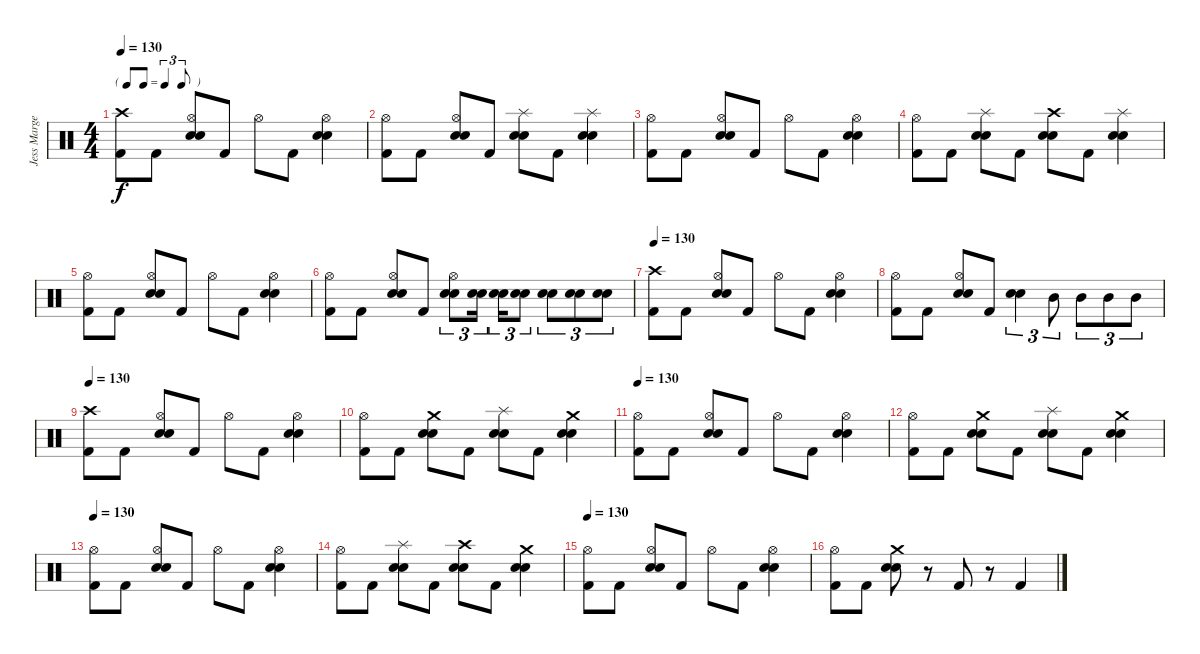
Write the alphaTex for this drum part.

\track ("Jess Margera" "Jess Marge") {instrument percussion}
\staff {score}
\articulation defaults
\ts (4 4)
\tf triplet8th
\tempo 130
\clef neutral
\ks c
("Crash high (hit)" "Kick (hit) 2").8{dy f} "Kick (hit) 2".8 ("Snare (hit) 2" "Hi-Hat (open)" "Electric Snare (hit)").8 "Kick (hit) 2".8 "Hi-Hat (open)".8 "Kick (hit) 2".8 ("Hi-Hat (open)" "Snare (hit) 2" "Electric Snare (hit)").4 |
("Hi-Hat (open)" "Kick (hit) 2").8 "Kick (hit) 2".8 ("Hi-Hat (open)" "Snare (hit) 2" "Electric Snare (hit)").8 "Kick (hit) 2".8 ("Splash (hit)" "Snare (hit) 2" "Electric Snare (hit)").8 "Kick (hit) 2".8 ("Splash (hit)" "Snare (hit) 2" "Electric Snare (hit)").4 |
("Hi-Hat (open)" "Kick (hit) 2").8 "Kick (hit) 2".8 ("Hi-Hat (open)" "Snare (hit) 2" "Electric Snare (hit)").8 "Kick (hit) 2".8 "Hi-Hat (open)".8 "Kick (hit) 2".8 ("Hi-Hat (open)" "Snare (hit) 2" "Electric Snare (hit)").4 |
("Hi-Hat (open)" "Kick (hit) 2").8 "Kick (hit) 2".8 ("Splash (hit)" "Snare (hit) 2" "Electric Snare (hit)").8 "Kick (hit) 2".8 ("Crash high (hit)" "Snare (hit) 2" "Electric Snare (hit)").8 "Kick (hit) 2".8 ("Splash (hit)" "Snare (hit) 2" "Electric Snare (hit)").4 |
("Hi-Hat (open)" "Kick (hit) 2").8 "Kick (hit) 2".8 ("Hi-Hat (open)" "Snare (hit) 2" "Electric Snare (hit)").8 "Kick (hit) 2".8 "Hi-Hat (open)".8 "Kick (hit) 2".8 ("Hi-Hat (open)" "Snare (hit) 2" "Electric Snare (hit)").4 |
("Hi-Hat (open)" "Kick (hit) 2").8 "Kick (hit) 2".8 ("Hi-Hat (open)" "Electric Snare (hit)" "Snare (hit) 2").8 "Kick (hit) 2".8 ("Hi-Hat (open)" "Electric Snare (hit)" "Snare (hit) 2").8{tu (3 2)} ("Electric Snare (hit)" "Snare (hit) 2").16{tu (3 2) beam splitsecondary} ("Electric Snare (hit)" "Snare (hit) 2").16{tu (3 2)} ("Electric Snare (hit)" "Snare (hit) 2").8{tu (3 2)} ("Electric Snare (hit)" "Snare (hit) 2").8{tu (3 2)} ("Electric Snare (hit)" "Snare (hit) 2").8{tu (3 2)} ("Electric Snare (hit)" "Snare (hit) 2").8{tu (3 2)} |
\tempo 130
("Crash high (hit)" "Kick (hit) 2").8 "Kick (hit) 2".8 ("Snare (hit) 2" "Hi-Hat (open)" "Electric Snare (hit)").8 "Kick (hit) 2".8 "Hi-Hat (open)".8 "Kick (hit) 2".8 ("Hi-Hat (open)" "Snare (hit) 2" "Electric Snare (hit)").4 |
("Hi-Hat (open)" "Kick (hit) 2").8 "Kick (hit) 2".8 ("Hi-Hat (open)" "Snare (hit) 2" "Electric Snare (hit)").8 "Kick (hit) 2".8 ("Snare (hit) 2" "Electric Snare (hit)").4{tu (3 2)} "Mid Tom (hit)".8{tu (3 2)} "Mid Tom (hit)".8{tu (3 2)} "Mid Tom (hit)".8{tu (3 2)} "Mid Tom (hit)".8{tu (3 2)} |
\tempo 130
("Crash high (hit)" "Kick (hit) 2").8 "Kick (hit) 2".8 ("Snare (hit) 2" "Hi-Hat (open)" "Electric Snare (hit)").8 "Kick (hit) 2".8 "Hi-Hat (open)".8 "Kick (hit) 2".8 ("Hi-Hat (open)" "Snare (hit) 2" "Electric Snare (hit)").4 |
("Hi-Hat (open)" "Kick (hit) 2").8 "Kick (hit) 2".8 ("Crash medium (hit)" "Snare (hit) 2" "Electric Snare (hit)").8 "Kick (hit) 2".8 ("Splash (hit)" "Snare (hit) 2" "Electric Snare (hit)").8 "Kick (hit) 2".8 ("Crash medium (hit)" "Snare (hit) 2" "Electric Snare (hit)").4 |
\tempo 130
("Hi-Hat (open)" "Kick (hit) 2").8 "Kick (hit) 2".8 ("Snare (hit) 2" "Hi-Hat (open)" "Electric Snare (hit)").8 "Kick (hit) 2".8 "Hi-Hat (open)".8 "Kick (hit) 2".8 ("Hi-Hat (open)" "Snare (hit) 2" "Electric Snare (hit)").4 |
("Hi-Hat (open)" "Kick (hit) 2").8 "Kick (hit) 2".8 ("Crash medium (hit)" "Snare (hit) 2" "Electric Snare (hit)").8 "Kick (hit) 2".8 ("Splash (hit)" "Snare (hit) 2" "Electric Snare (hit)").8 "Kick (hit) 2".8 ("Crash medium (hit)" "Snare (hit) 2" "Electric Snare (hit)").4 |
\tempo 130
("Hi-Hat (open)" "Kick (hit) 2").8 "Kick (hit) 2".8 ("Snare (hit) 2" "Hi-Hat (open)" "Electric Snare (hit)").8 "Kick (hit) 2".8 "Hi-Hat (open)".8 "Kick (hit) 2".8 ("Hi-Hat (open)" "Snare (hit) 2" "Electric Snare (hit)").4 |
("Hi-Hat (open)" "Kick (hit) 2").8 "Kick (hit) 2".8 ("Splash (hit)" "Snare (hit) 2" "Electric Snare (hit)").8 "Kick (hit) 2".8 ("Crash high (hit)" "Snare (hit) 2" "Electric Snare (hit)").8 "Kick (hit) 2".8 ("Crash medium (hit)" "Snare (hit) 2" "Electric Snare (hit)").4 |
\tempo 130
("Hi-Hat (open)" "Kick (hit) 2").8 "Kick (hit) 2".8 ("Snare (hit) 2" "Hi-Hat (open)" "Electric Snare (hit)").8 "Kick (hit) 2".8 "Hi-Hat (open)".8 "Kick (hit) 2".8 ("Hi-Hat (open)" "Snare (hit) 2" "Electric Snare (hit)").4 |
("Hi-Hat (open)" "Kick (hit) 2").8 "Kick (hit) 2".8 ("Crash medium (hit)" "Snare (hit) 2" "Electric Snare (hit)").8 r.8 "Kick (hit) 2".8 r.8 "Kick (hit) 2".4
